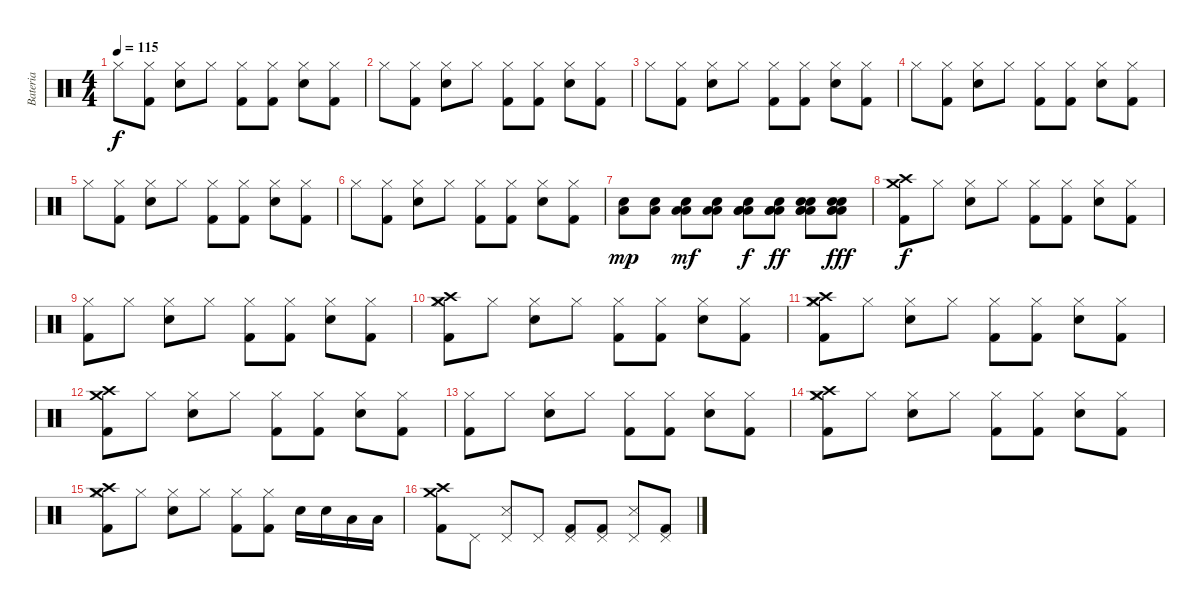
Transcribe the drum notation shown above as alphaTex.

\track ("Bateria" "Bateria") {instrument percussion}
\staff {score}
\articulation defaults
\ts (4 4)
\tempo 115
\clef neutral
\ks c "Hi-Hat (closed)".8{dy f}
("Hi-Hat (closed)" "Kick (hit) 2").8 ("Hi-Hat (closed)" "Snare (hit) 2").8 "Hi-Hat (closed)".8 ("Hi-Hat (closed)" "Kick (hit) 2").8 ("Hi-Hat (closed)" "Kick (hit) 2").8 ("Hi-Hat (closed)" "Snare (hit) 2").8 ("Hi-Hat (closed)" "Kick (hit) 2").8 |
"Hi-Hat (closed)".8 ("Hi-Hat (closed)" "Kick (hit) 2").8 ("Hi-Hat (closed)" "Snare (hit) 2").8 "Hi-Hat (closed)".8 ("Hi-Hat (closed)" "Kick (hit) 2").8 ("Hi-Hat (closed)" "Kick (hit) 2").8 ("Hi-Hat (closed)" "Snare (hit) 2").8 ("Hi-Hat (closed)" "Kick (hit) 2").8 |
"Hi-Hat (closed)".8 ("Hi-Hat (closed)" "Kick (hit) 2").8 ("Hi-Hat (closed)" "Snare (hit) 2").8 "Hi-Hat (closed)".8 ("Hi-Hat (closed)" "Kick (hit) 2").8 ("Hi-Hat (closed)" "Kick (hit) 2").8 ("Hi-Hat (closed)" "Snare (hit) 2").8 ("Hi-Hat (closed)" "Kick (hit) 2").8 |
"Hi-Hat (closed)".8 ("Hi-Hat (closed)" "Kick (hit) 2").8 ("Hi-Hat (closed)" "Snare (hit) 2").8 "Hi-Hat (closed)".8 ("Hi-Hat (closed)" "Kick (hit) 2").8 ("Hi-Hat (closed)" "Kick (hit) 2").8 ("Hi-Hat (closed)" "Snare (hit) 2").8 ("Hi-Hat (closed)" "Kick (hit) 2").8 |
"Hi-Hat (closed)".8 ("Hi-Hat (closed)" "Kick (hit) 2").8 ("Hi-Hat (closed)" "Snare (hit) 2").8 "Hi-Hat (closed)".8 ("Hi-Hat (closed)" "Kick (hit) 2").8 ("Hi-Hat (closed)" "Kick (hit) 2").8 ("Hi-Hat (closed)" "Snare (hit) 2").8 ("Hi-Hat (closed)" "Kick (hit) 2").8 |
"Hi-Hat (closed)".8 ("Hi-Hat (closed)" "Kick (hit) 2").8 ("Hi-Hat (closed)" "Snare (hit) 2").8 "Hi-Hat (closed)".8 ("Hi-Hat (closed)" "Kick (hit) 2").8 ("Hi-Hat (closed)" "Kick (hit) 2").8 ("Hi-Hat (closed)" "Snare (hit) 2").8 ("Hi-Hat (closed)" "Kick (hit) 2").8 |
("Low Floor Tom (hit)" "Snare (hit) 2").8{dy mp volume 16 balance 8} ("Low Floor Tom (hit)" "Snare (hit) 2").8 ("Low Floor Tom (hit)" "Low Floor Tom (hit)" "Snare (hit) 2").8{dy mf} ("Low Floor Tom (hit)" "Low Floor Tom (hit)" "Snare (hit) 2").8 ("Low Floor Tom (hit)" "Low Floor Tom (hit)" "Low Floor Tom (hit)" "Snare (hit) 2").8{dy f} ("Low Floor Tom (hit)" "Low Floor Tom (hit)" "Low Floor Tom (hit)" "Snare (hit) 2").8{dy ff} ("Low Floor Tom (hit)" "Low Floor Tom (hit)" "Low Floor Tom (hit)" "Snare (hit) 2" "Snare (hit) 2").8 ("Low Floor Tom (hit)" "Low Floor Tom (hit)" "Low Floor Tom (hit)" "Snare (hit) 2" "Snare (hit) 2").8{dy fff} |
("Crash high (hit)" "Crash medium (hit)" "Kick (hit) 2").8{dy f} "Hi-Hat (closed)".8 ("Hi-Hat (closed)" "Snare (hit) 2").8 "Hi-Hat (closed)".8 ("Hi-Hat (closed)" "Kick (hit) 2").8 ("Hi-Hat (closed)" "Kick (hit) 2").8 ("Hi-Hat (closed)" "Snare (hit) 2").8 ("Hi-Hat (closed)" "Kick (hit) 2").8 |
("Hi-Hat (closed)" "Kick (hit) 2").8 "Hi-Hat (closed)".8 ("Hi-Hat (closed)" "Snare (hit) 2").8 "Hi-Hat (closed)".8 ("Hi-Hat (closed)" "Kick (hit) 2").8 ("Hi-Hat (closed)" "Kick (hit) 2").8 ("Hi-Hat (closed)" "Snare (hit) 2").8 ("Hi-Hat (closed)" "Kick (hit) 2").8 |
("Crash high (hit)" "Crash medium (hit)" "Hi-Hat (closed)" "Kick (hit) 2").8 "Hi-Hat (closed)".8 ("Hi-Hat (closed)" "Snare (hit) 2").8 "Hi-Hat (closed)".8 ("Hi-Hat (closed)" "Kick (hit) 2").8 ("Hi-Hat (closed)" "Kick (hit) 2").8 ("Hi-Hat (closed)" "Snare (hit) 2").8 ("Hi-Hat (closed)" "Kick (hit) 2").8 |
("Crash high (hit)" "Crash medium (hit)" "Hi-Hat (closed)" "Kick (hit) 2").8 "Hi-Hat (closed)".8 ("Hi-Hat (closed)" "Snare (hit) 2").8 "Hi-Hat (closed)".8 ("Hi-Hat (closed)" "Kick (hit) 2").8 ("Hi-Hat (closed)" "Kick (hit) 2").8 ("Hi-Hat (closed)" "Snare (hit) 2").8 ("Hi-Hat (closed)" "Kick (hit) 2").8 |
("Crash high (hit)" "Crash medium (hit)" "Kick (hit) 2").8 "Hi-Hat (closed)".8 ("Hi-Hat (closed)" "Snare (hit) 2").8 "Hi-Hat (closed)".8 ("Hi-Hat (closed)" "Kick (hit) 2").8 ("Hi-Hat (closed)" "Kick (hit) 2").8 ("Hi-Hat (closed)" "Snare (hit) 2").8 ("Hi-Hat (closed)" "Kick (hit) 2").8 |
("Hi-Hat (closed)" "Kick (hit) 2").8 "Hi-Hat (closed)".8 ("Hi-Hat (closed)" "Snare (hit) 2").8 "Hi-Hat (closed)".8 ("Hi-Hat (closed)" "Kick (hit) 2").8 ("Hi-Hat (closed)" "Kick (hit) 2").8 ("Hi-Hat (closed)" "Snare (hit) 2").8 ("Hi-Hat (closed)" "Kick (hit) 2").8 |
("Crash high (hit)" "Crash medium (hit)" "Hi-Hat (closed)" "Kick (hit) 2").8 "Hi-Hat (closed)".8 ("Hi-Hat (closed)" "Snare (hit) 2").8 "Hi-Hat (closed)".8 ("Hi-Hat (closed)" "Kick (hit) 2").8 ("Hi-Hat (closed)" "Kick (hit) 2").8 ("Hi-Hat (closed)" "Snare (hit) 2").8 ("Hi-Hat (closed)" "Kick (hit) 2").8 |
("Crash high (hit)" "Crash medium (hit)" "Hi-Hat (closed)" "Kick (hit) 2").8 "Hi-Hat (closed)".8 ("Hi-Hat (closed)" "Snare (hit) 2").8 "Hi-Hat (closed)".8 ("Hi-Hat (closed)" "Kick (hit) 2").8 ("Hi-Hat (closed)" "Kick (hit) 2").8 "Snare (hit) 2".16 "Snare (hit) 2".16 "Low Tom (hit)".16 "Low Floor Tom (hit)".16 |
("Crash high (hit)" "Crash medium (hit)" "Kick (hit) 2").8 "Pedal Hi-Hat (hit)".8 ("Pedal Hi-Hat (hit)" "Snare (side stick) 3").8 "Pedal Hi-Hat (hit)".8 ("Pedal Hi-Hat (hit)" "Kick (hit) 2").8 ("Pedal Hi-Hat (hit)" "Kick (hit) 2").8 ("Pedal Hi-Hat (hit)" "Snare (side stick) 3").8 ("Pedal Hi-Hat (hit)" "Kick (hit) 2").8
